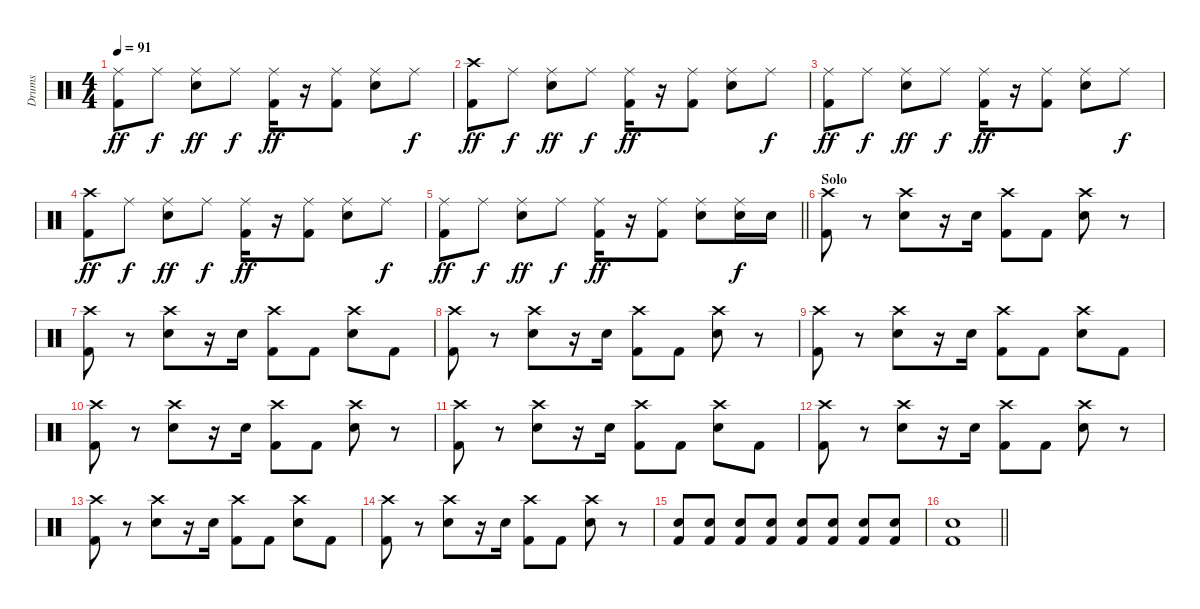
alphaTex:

\track ("Drums" "Drums") {instrument percussion}
\staff {score}
\articulation defaults
\ts (4 4)
\tempo 91
\clef neutral
\ks c
("Ride (middle)" "Kick (hit) 2").8{dy ff} "Ride (middle)".8{dy f} ("Ride (middle)" "Electric Snare (hit)").8{dy ff} "Ride (middle)".8{dy f} ("Ride (middle)" "Kick (hit) 2").16{dy ff} r.16 ("Ride (middle)" "Kick (hit) 2").8 ("Ride (middle)" "Electric Snare (hit)").8 "Ride (middle)".8{dy f} |
("Crash high (hit)" "Kick (hit) 2").8{dy ff} "Ride (middle)".8{dy f} ("Ride (middle)" "Electric Snare (hit)").8{dy ff} "Ride (middle)".8{dy f} ("Ride (middle)" "Kick (hit) 2").16{dy ff} r.16 ("Ride (middle)" "Kick (hit) 2").8 ("Ride (middle)" "Electric Snare (hit)").8 "Ride (middle)".8{dy f} |
("Ride (middle)" "Kick (hit) 2").8{dy ff} "Ride (middle)".8{dy f} ("Ride (middle)" "Electric Snare (hit)").8{dy ff} "Ride (middle)".8{dy f} ("Ride (middle)" "Kick (hit) 2").16{dy ff} r.16 ("Ride (middle)" "Kick (hit) 2").8 ("Ride (middle)" "Electric Snare (hit)").8 "Ride (middle)".8{dy f} |
("Crash high (hit)" "Kick (hit) 2").8{dy ff} "Ride (middle)".8{dy f} ("Ride (middle)" "Electric Snare (hit)").8{dy ff} "Ride (middle)".8{dy f} ("Ride (middle)" "Kick (hit) 2").16{dy ff} r.16 ("Ride (middle)" "Kick (hit) 2").8 ("Ride (middle)" "Electric Snare (hit)").8 "Ride (middle)".8{dy f} |
\barLineRight lightlight
("Ride (middle)" "Kick (hit) 2").8{dy ff} "Ride (middle)".8{dy f} ("Ride (middle)" "Electric Snare (hit)").8{dy ff} "Ride (middle)".8{dy f} ("Ride (middle)" "Kick (hit) 2").16{dy ff} r.16 ("Ride (middle)" "Kick (hit) 2").8 ("Ride (middle)" "Electric Snare (hit)").8 ("Ride (middle)" "Electric Snare (hit)").16{dy f} "Electric Snare (hit)".16 |
\section ("" "Solo")
("Crash high (hit)" "Kick (hit) 2").8 r.8 ("Crash high (hit)" "Electric Snare (hit)").8 r.16 "Electric Snare (hit)".16 ("Crash high (hit)" "Kick (hit) 2").8 "Kick (hit) 2".8 ("Crash high (hit)" "Electric Snare (hit)").8 r.8 |
("Crash high (hit)" "Kick (hit) 2").8 r.8 ("Crash high (hit)" "Electric Snare (hit)").8 r.16 "Electric Snare (hit)".16 ("Crash high (hit)" "Kick (hit) 2").8 "Kick (hit) 2".8 ("Crash high (hit)" "Electric Snare (hit)").8 "Kick (hit) 2".8 |
("Crash high (hit)" "Kick (hit) 2").8 r.8 ("Crash high (hit)" "Electric Snare (hit)").8 r.16 "Electric Snare (hit)".16 ("Crash high (hit)" "Kick (hit) 2").8 "Kick (hit) 2".8 ("Crash high (hit)" "Electric Snare (hit)").8 r.8 |
("Crash high (hit)" "Kick (hit) 2").8 r.8 ("Crash high (hit)" "Electric Snare (hit)").8 r.16 "Electric Snare (hit)".16 ("Crash high (hit)" "Kick (hit) 2").8 "Kick (hit) 2".8 ("Crash high (hit)" "Electric Snare (hit)").8 "Kick (hit) 2".8 |
("Crash high (hit)" "Kick (hit) 2").8 r.8 ("Crash high (hit)" "Electric Snare (hit)").8 r.16 "Electric Snare (hit)".16 ("Crash high (hit)" "Kick (hit) 2").8 "Kick (hit) 2".8 ("Crash high (hit)" "Electric Snare (hit)").8 r.8 |
("Crash high (hit)" "Kick (hit) 2").8 r.8 ("Crash high (hit)" "Electric Snare (hit)").8 r.16 "Electric Snare (hit)".16 ("Crash high (hit)" "Kick (hit) 2").8 "Kick (hit) 2".8 ("Crash high (hit)" "Electric Snare (hit)").8 "Kick (hit) 2".8 |
("Crash high (hit)" "Kick (hit) 2").8 r.8 ("Crash high (hit)" "Electric Snare (hit)").8 r.16 "Electric Snare (hit)".16 ("Crash high (hit)" "Kick (hit) 2").8 "Kick (hit) 2".8 ("Crash high (hit)" "Electric Snare (hit)").8 r.8 |
("Crash high (hit)" "Kick (hit) 2").8 r.8 ("Crash high (hit)" "Electric Snare (hit)").8 r.16 "Electric Snare (hit)".16 ("Crash high (hit)" "Kick (hit) 2").8 "Kick (hit) 2".8 ("Crash high (hit)" "Electric Snare (hit)").8 "Kick (hit) 2".8 |
("Crash high (hit)" "Kick (hit) 2").8 r.8 ("Crash high (hit)" "Electric Snare (hit)").8 r.16 "Electric Snare (hit)".16 ("Crash high (hit)" "Kick (hit) 2").8 "Kick (hit) 2".8 ("Crash high (hit)" "Electric Snare (hit)").8 r.8 |
("Electric Snare (hit)" "Kick (hit) 2").8 ("Electric Snare (hit)" "Kick (hit) 2").8 ("Electric Snare (hit)" "Kick (hit) 2").8 ("Electric Snare (hit)" "Kick (hit) 2").8 ("Electric Snare (hit)" "Kick (hit) 2").8 ("Electric Snare (hit)" "Kick (hit) 2").8 ("Electric Snare (hit)" "Kick (hit) 2").8 ("Electric Snare (hit)" "Kick (hit) 2").8 |
\barLineRight lightlight
("Electric Snare (hit)" "Kick (hit) 2").1
